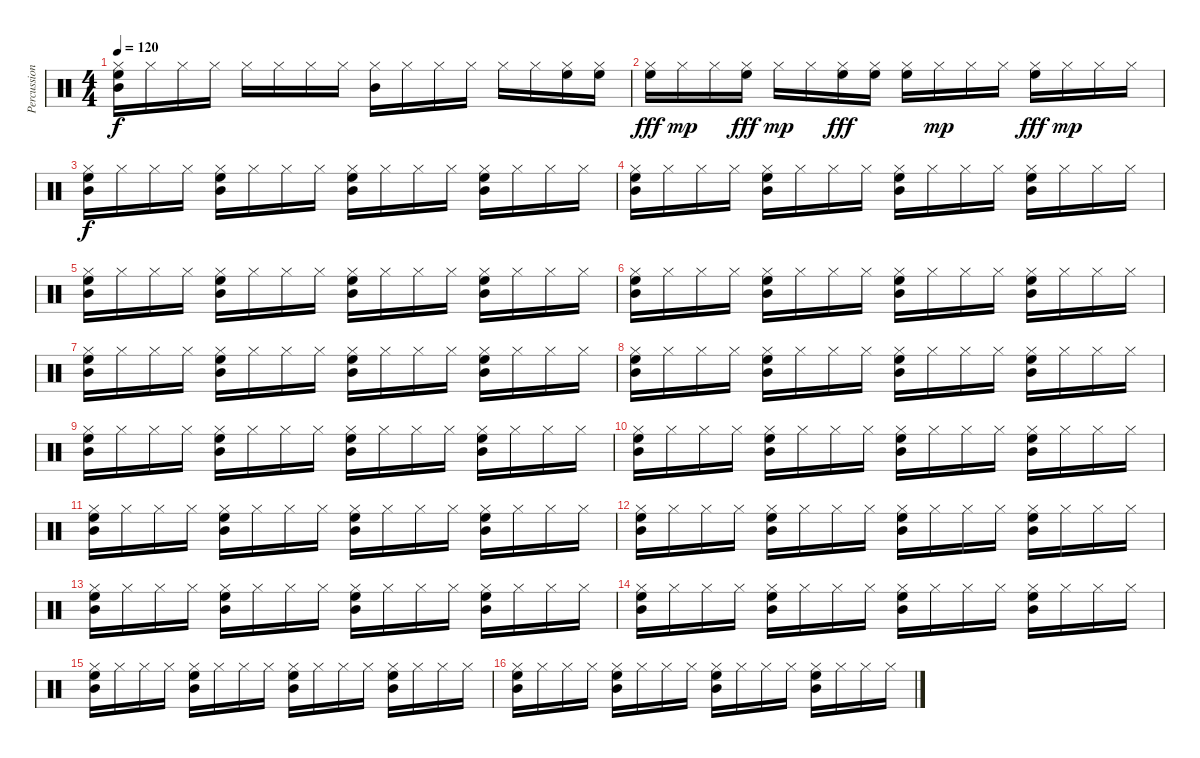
\track ("Percussion" "Percussion") {instrument percussion}
\staff {score}
\articulation defaults
\ts (4 4)
\tempo 120
\clef neutral
\ks c
("Hi-Hat (closed)" "Mid Tom (hit)" "High Floor Tom (hit)").16{dy f} "Hi-Hat (closed)".16 "Hi-Hat (closed)".16 "Hi-Hat (closed)".16 "Hi-Hat (closed)".16 "Hi-Hat (closed)".16 "Hi-Hat (closed)".16 "Hi-Hat (closed)".16 ("Hi-Hat (closed)" "Mid Tom (hit)").16 "Hi-Hat (closed)".16 "Hi-Hat (closed)".16 "Hi-Hat (closed)".16 "Hi-Hat (closed)".16 "Hi-Hat (closed)".16 ("Hi-Hat (closed)" "High Floor Tom (hit)").16 ("Hi-Hat (closed)" "High Floor Tom (hit)").16 |
("Hi-Hat (closed)" "High Floor Tom (hit)").16{dy fff} "Hi-Hat (closed)".16{dy mp} "Hi-Hat (closed)".16 ("Hi-Hat (closed)" "High Floor Tom (hit)").16{dy fff} "Hi-Hat (closed)".16{dy mp} "Hi-Hat (closed)".16 ("Hi-Hat (closed)" "High Floor Tom (hit)").16{dy fff} ("Hi-Hat (closed)" "High Floor Tom (hit)").16 ("Hi-Hat (closed)" "High Floor Tom (hit)").16 "Hi-Hat (closed)".16{dy mp} "Hi-Hat (closed)".16 "Hi-Hat (closed)".16 ("Hi-Hat (closed)" "High Floor Tom (hit)").16{dy fff} "Hi-Hat (closed)".16{dy mp} "Hi-Hat (closed)".16 "Hi-Hat (closed)".16 |
("Hi-Hat (closed)" "Mid Tom (hit)" "High Floor Tom (hit)").16{dy f} "Hi-Hat (closed)".16 "Hi-Hat (closed)".16 "Hi-Hat (closed)".16 ("Hi-Hat (closed)" "Mid Tom (hit)" "High Floor Tom (hit)").16 "Hi-Hat (closed)".16 "Hi-Hat (closed)".16 "Hi-Hat (closed)".16 ("Hi-Hat (closed)" "Mid Tom (hit)" "High Floor Tom (hit)").16 "Hi-Hat (closed)".16 "Hi-Hat (closed)".16 "Hi-Hat (closed)".16 ("Hi-Hat (closed)" "Mid Tom (hit)" "High Floor Tom (hit)").16 "Hi-Hat (closed)".16 "Hi-Hat (closed)".16 "Hi-Hat (closed)".16 |
("Hi-Hat (closed)" "Mid Tom (hit)" "High Floor Tom (hit)").16 "Hi-Hat (closed)".16 "Hi-Hat (closed)".16 "Hi-Hat (closed)".16 ("Hi-Hat (closed)" "Mid Tom (hit)" "High Floor Tom (hit)").16 "Hi-Hat (closed)".16 "Hi-Hat (closed)".16 "Hi-Hat (closed)".16 ("Hi-Hat (closed)" "Mid Tom (hit)" "High Floor Tom (hit)").16 "Hi-Hat (closed)".16 "Hi-Hat (closed)".16 "Hi-Hat (closed)".16 ("Hi-Hat (closed)" "Mid Tom (hit)" "High Floor Tom (hit)").16 "Hi-Hat (closed)".16 "Hi-Hat (closed)".16 "Hi-Hat (closed)".16 |
("Hi-Hat (closed)" "Mid Tom (hit)" "High Floor Tom (hit)").16 "Hi-Hat (closed)".16 "Hi-Hat (closed)".16 "Hi-Hat (closed)".16 ("Hi-Hat (closed)" "Mid Tom (hit)" "High Floor Tom (hit)").16 "Hi-Hat (closed)".16 "Hi-Hat (closed)".16 "Hi-Hat (closed)".16 ("Hi-Hat (closed)" "Mid Tom (hit)" "High Floor Tom (hit)").16 "Hi-Hat (closed)".16 "Hi-Hat (closed)".16 "Hi-Hat (closed)".16 ("Hi-Hat (closed)" "Mid Tom (hit)" "High Floor Tom (hit)").16 "Hi-Hat (closed)".16 "Hi-Hat (closed)".16 "Hi-Hat (closed)".16 |
("Hi-Hat (closed)" "Mid Tom (hit)" "High Floor Tom (hit)").16 "Hi-Hat (closed)".16 "Hi-Hat (closed)".16 "Hi-Hat (closed)".16 ("Hi-Hat (closed)" "Mid Tom (hit)" "High Floor Tom (hit)").16 "Hi-Hat (closed)".16 "Hi-Hat (closed)".16 "Hi-Hat (closed)".16 ("Hi-Hat (closed)" "Mid Tom (hit)" "High Floor Tom (hit)").16 "Hi-Hat (closed)".16 "Hi-Hat (closed)".16 "Hi-Hat (closed)".16 ("Hi-Hat (closed)" "Mid Tom (hit)" "High Floor Tom (hit)").16 "Hi-Hat (closed)".16 "Hi-Hat (closed)".16 "Hi-Hat (closed)".16 |
("Hi-Hat (closed)" "Mid Tom (hit)" "High Floor Tom (hit)").16 "Hi-Hat (closed)".16 "Hi-Hat (closed)".16 "Hi-Hat (closed)".16 ("Hi-Hat (closed)" "Mid Tom (hit)" "High Floor Tom (hit)").16 "Hi-Hat (closed)".16 "Hi-Hat (closed)".16 "Hi-Hat (closed)".16 ("Hi-Hat (closed)" "Mid Tom (hit)" "High Floor Tom (hit)").16 "Hi-Hat (closed)".16 "Hi-Hat (closed)".16 "Hi-Hat (closed)".16 ("Hi-Hat (closed)" "Mid Tom (hit)" "High Floor Tom (hit)").16 "Hi-Hat (closed)".16 "Hi-Hat (closed)".16 "Hi-Hat (closed)".16 |
("Hi-Hat (closed)" "Mid Tom (hit)" "High Floor Tom (hit)").16 "Hi-Hat (closed)".16 "Hi-Hat (closed)".16 "Hi-Hat (closed)".16 ("Hi-Hat (closed)" "Mid Tom (hit)" "High Floor Tom (hit)").16 "Hi-Hat (closed)".16 "Hi-Hat (closed)".16 "Hi-Hat (closed)".16 ("Hi-Hat (closed)" "Mid Tom (hit)" "High Floor Tom (hit)").16 "Hi-Hat (closed)".16 "Hi-Hat (closed)".16 "Hi-Hat (closed)".16 ("Hi-Hat (closed)" "Mid Tom (hit)" "High Floor Tom (hit)").16 "Hi-Hat (closed)".16 "Hi-Hat (closed)".16 "Hi-Hat (closed)".16 |
("Hi-Hat (closed)" "Mid Tom (hit)" "High Floor Tom (hit)").16 "Hi-Hat (closed)".16 "Hi-Hat (closed)".16 "Hi-Hat (closed)".16 ("Hi-Hat (closed)" "Mid Tom (hit)" "High Floor Tom (hit)").16 "Hi-Hat (closed)".16 "Hi-Hat (closed)".16 "Hi-Hat (closed)".16 ("Hi-Hat (closed)" "Mid Tom (hit)" "High Floor Tom (hit)").16 "Hi-Hat (closed)".16 "Hi-Hat (closed)".16 "Hi-Hat (closed)".16 ("Hi-Hat (closed)" "Mid Tom (hit)" "High Floor Tom (hit)").16 "Hi-Hat (closed)".16 "Hi-Hat (closed)".16 "Hi-Hat (closed)".16 |
("Hi-Hat (closed)" "Mid Tom (hit)" "High Floor Tom (hit)").16 "Hi-Hat (closed)".16 "Hi-Hat (closed)".16 "Hi-Hat (closed)".16 ("Hi-Hat (closed)" "Mid Tom (hit)" "High Floor Tom (hit)").16 "Hi-Hat (closed)".16 "Hi-Hat (closed)".16 "Hi-Hat (closed)".16 ("Hi-Hat (closed)" "Mid Tom (hit)" "High Floor Tom (hit)").16 "Hi-Hat (closed)".16 "Hi-Hat (closed)".16 "Hi-Hat (closed)".16 ("Hi-Hat (closed)" "Mid Tom (hit)" "High Floor Tom (hit)").16 "Hi-Hat (closed)".16 "Hi-Hat (closed)".16 "Hi-Hat (closed)".16 |
("Hi-Hat (closed)" "Mid Tom (hit)" "High Floor Tom (hit)").16 "Hi-Hat (closed)".16 "Hi-Hat (closed)".16 "Hi-Hat (closed)".16 ("Hi-Hat (closed)" "Mid Tom (hit)" "High Floor Tom (hit)").16 "Hi-Hat (closed)".16 "Hi-Hat (closed)".16 "Hi-Hat (closed)".16 ("Hi-Hat (closed)" "Mid Tom (hit)" "High Floor Tom (hit)").16 "Hi-Hat (closed)".16 "Hi-Hat (closed)".16 "Hi-Hat (closed)".16 ("Hi-Hat (closed)" "Mid Tom (hit)" "High Floor Tom (hit)").16 "Hi-Hat (closed)".16 "Hi-Hat (closed)".16 "Hi-Hat (closed)".16 |
("Hi-Hat (closed)" "Mid Tom (hit)" "High Floor Tom (hit)").16 "Hi-Hat (closed)".16 "Hi-Hat (closed)".16 "Hi-Hat (closed)".16 ("Hi-Hat (closed)" "Mid Tom (hit)" "High Floor Tom (hit)").16 "Hi-Hat (closed)".16 "Hi-Hat (closed)".16 "Hi-Hat (closed)".16 ("Hi-Hat (closed)" "Mid Tom (hit)" "High Floor Tom (hit)").16 "Hi-Hat (closed)".16 "Hi-Hat (closed)".16 "Hi-Hat (closed)".16 ("Hi-Hat (closed)" "Mid Tom (hit)" "High Floor Tom (hit)").16 "Hi-Hat (closed)".16 "Hi-Hat (closed)".16 "Hi-Hat (closed)".16 |
("Hi-Hat (closed)" "Mid Tom (hit)" "High Floor Tom (hit)").16 "Hi-Hat (closed)".16 "Hi-Hat (closed)".16 "Hi-Hat (closed)".16 ("Hi-Hat (closed)" "Mid Tom (hit)" "High Floor Tom (hit)").16 "Hi-Hat (closed)".16 "Hi-Hat (closed)".16 "Hi-Hat (closed)".16 ("Hi-Hat (closed)" "Mid Tom (hit)" "High Floor Tom (hit)").16 "Hi-Hat (closed)".16 "Hi-Hat (closed)".16 "Hi-Hat (closed)".16 ("Hi-Hat (closed)" "Mid Tom (hit)" "High Floor Tom (hit)").16 "Hi-Hat (closed)".16 "Hi-Hat (closed)".16 "Hi-Hat (closed)".16 |
("Hi-Hat (closed)" "Mid Tom (hit)" "High Floor Tom (hit)").16 "Hi-Hat (closed)".16 "Hi-Hat (closed)".16 "Hi-Hat (closed)".16 ("Hi-Hat (closed)" "Mid Tom (hit)" "High Floor Tom (hit)").16 "Hi-Hat (closed)".16 "Hi-Hat (closed)".16 "Hi-Hat (closed)".16 ("Hi-Hat (closed)" "Mid Tom (hit)" "High Floor Tom (hit)").16 "Hi-Hat (closed)".16 "Hi-Hat (closed)".16 "Hi-Hat (closed)".16 ("Hi-Hat (closed)" "Mid Tom (hit)" "High Floor Tom (hit)").16 "Hi-Hat (closed)".16 "Hi-Hat (closed)".16 "Hi-Hat (closed)".16 |
("Hi-Hat (closed)" "Mid Tom (hit)" "High Floor Tom (hit)").16 "Hi-Hat (closed)".16 "Hi-Hat (closed)".16 "Hi-Hat (closed)".16 ("Hi-Hat (closed)" "Mid Tom (hit)" "High Floor Tom (hit)").16 "Hi-Hat (closed)".16 "Hi-Hat (closed)".16 "Hi-Hat (closed)".16 ("Hi-Hat (closed)" "Mid Tom (hit)" "High Floor Tom (hit)").16 "Hi-Hat (closed)".16 "Hi-Hat (closed)".16 "Hi-Hat (closed)".16 ("Hi-Hat (closed)" "Mid Tom (hit)" "High Floor Tom (hit)").16 "Hi-Hat (closed)".16 "Hi-Hat (closed)".16 "Hi-Hat (closed)".16 |
("Hi-Hat (closed)" "Mid Tom (hit)" "High Floor Tom (hit)").16 "Hi-Hat (closed)".16 "Hi-Hat (closed)".16 "Hi-Hat (closed)".16 ("Hi-Hat (closed)" "Mid Tom (hit)" "High Floor Tom (hit)").16 "Hi-Hat (closed)".16 "Hi-Hat (closed)".16 "Hi-Hat (closed)".16 ("Hi-Hat (closed)" "Mid Tom (hit)" "High Floor Tom (hit)").16 "Hi-Hat (closed)".16 "Hi-Hat (closed)".16 "Hi-Hat (closed)".16 ("Hi-Hat (closed)" "Mid Tom (hit)" "High Floor Tom (hit)").16 "Hi-Hat (closed)".16 "Hi-Hat (closed)".16 "Hi-Hat (closed)".16
